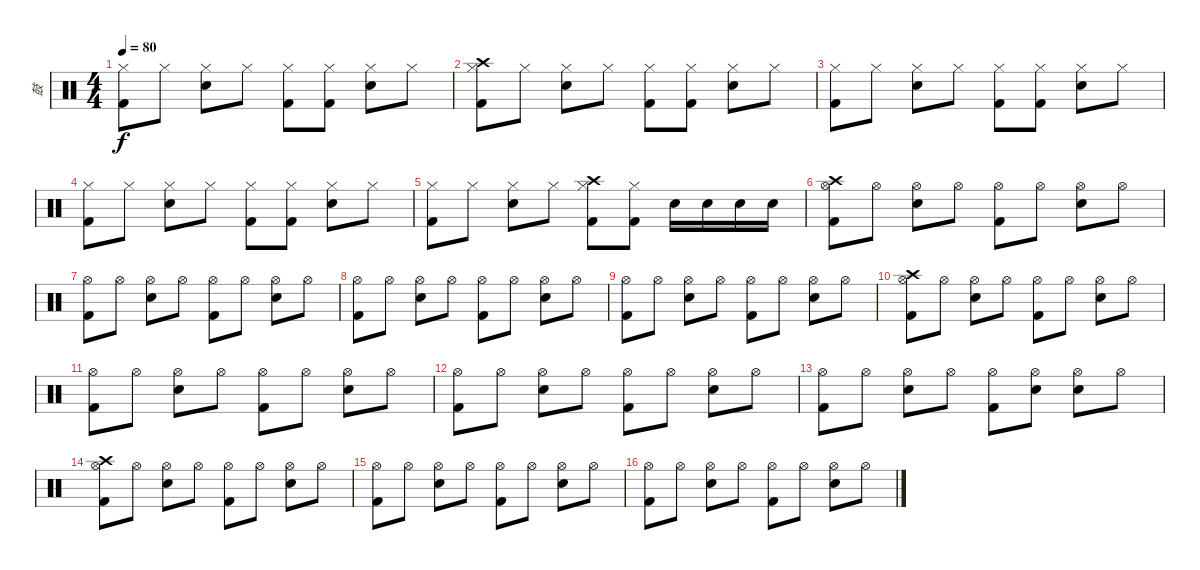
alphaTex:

\track ("鼓" "鼓") {instrument percussion}
\staff {score}
\articulation defaults
\ts (4 4)
\tempo 80
\clef neutral
\ks c
("Hi-Hat (closed)" "Kick (hit) 2").8{dy f} "Hi-Hat (closed)".8 ("Hi-Hat (closed)" "Snare (hit) 2").8 "Hi-Hat (closed)".8 ("Hi-Hat (closed)" "Kick (hit) 2").8 ("Hi-Hat (closed)" "Kick (hit) 2").8 ("Hi-Hat (closed)" "Snare (hit) 2").8 "Hi-Hat (closed)".8 |
("Hi-Hat (closed)" "Crash high (hit)" "Kick (hit) 2").8 "Hi-Hat (closed)".8 ("Hi-Hat (closed)" "Snare (hit) 2").8 "Hi-Hat (closed)".8 ("Hi-Hat (closed)" "Kick (hit) 2").8 ("Hi-Hat (closed)" "Kick (hit) 2").8 ("Hi-Hat (closed)" "Snare (hit) 2").8 "Hi-Hat (closed)".8 |
("Hi-Hat (closed)" "Kick (hit) 2").8 "Hi-Hat (closed)".8 ("Hi-Hat (closed)" "Snare (hit) 2").8 "Hi-Hat (closed)".8 ("Hi-Hat (closed)" "Kick (hit) 2").8 ("Hi-Hat (closed)" "Kick (hit) 2").8 ("Hi-Hat (closed)" "Snare (hit) 2").8 "Hi-Hat (closed)".8 |
("Hi-Hat (closed)" "Kick (hit) 2").8 "Hi-Hat (closed)".8 ("Hi-Hat (closed)" "Snare (hit) 2").8 "Hi-Hat (closed)".8 ("Hi-Hat (closed)" "Kick (hit) 2").8 ("Hi-Hat (closed)" "Kick (hit) 2").8 ("Hi-Hat (closed)" "Snare (hit) 2").8 "Hi-Hat (closed)".8 |
("Hi-Hat (closed)" "Kick (hit) 2").8 "Hi-Hat (closed)".8 ("Hi-Hat (closed)" "Snare (hit) 2").8 "Hi-Hat (closed)".8 ("Hi-Hat (closed)" "Crash high (hit)" "Kick (hit) 2").8 ("Hi-Hat (closed)" "Kick (hit) 2").8 "Snare (hit) 2".16 "Snare (hit) 2".16 "Snare (hit) 2".16 "Snare (hit) 2".16 |
("Hi-Hat (open)" "Crash high (hit)" "Kick (hit) 2").8 "Hi-Hat (open)".8 ("Hi-Hat (open)" "Snare (hit) 2").8 "Hi-Hat (open)".8 ("Hi-Hat (open)" "Kick (hit) 2").8 "Hi-Hat (open)".8 ("Hi-Hat (open)" "Snare (hit) 2").8 "Hi-Hat (open)".8 |
("Hi-Hat (open)" "Kick (hit) 2").8 "Hi-Hat (open)".8 ("Hi-Hat (open)" "Snare (hit) 2").8 "Hi-Hat (open)".8 ("Hi-Hat (open)" "Kick (hit) 2").8 "Hi-Hat (open)".8 ("Hi-Hat (open)" "Snare (hit) 2").8 "Hi-Hat (open)".8 |
("Hi-Hat (open)" "Kick (hit) 2").8 "Hi-Hat (open)".8 ("Hi-Hat (open)" "Snare (hit) 2").8 "Hi-Hat (open)".8 ("Hi-Hat (open)" "Kick (hit) 2").8 "Hi-Hat (open)".8 ("Hi-Hat (open)" "Snare (hit) 2").8 "Hi-Hat (open)".8 |
("Hi-Hat (open)" "Kick (hit) 2").8 "Hi-Hat (open)".8 ("Hi-Hat (open)" "Snare (hit) 2").8 "Hi-Hat (open)".8 ("Hi-Hat (open)" "Kick (hit) 2").8 "Hi-Hat (open)".8 ("Hi-Hat (open)" "Snare (hit) 2").8 "Hi-Hat (open)".8 |
("Hi-Hat (open)" "Crash high (hit)" "Kick (hit) 2").8 "Hi-Hat (open)".8 ("Hi-Hat (open)" "Snare (hit) 2").8 "Hi-Hat (open)".8 ("Hi-Hat (open)" "Kick (hit) 2").8 "Hi-Hat (open)".8 ("Hi-Hat (open)" "Snare (hit) 2").8 "Hi-Hat (open)".8 |
("Hi-Hat (open)" "Kick (hit) 2").8 "Hi-Hat (open)".8 ("Hi-Hat (open)" "Snare (hit) 2").8 "Hi-Hat (open)".8 ("Hi-Hat (open)" "Kick (hit) 2").8 "Hi-Hat (open)".8 ("Hi-Hat (open)" "Snare (hit) 2").8 "Hi-Hat (open)".8 |
("Hi-Hat (open)" "Kick (hit) 2").8 "Hi-Hat (open)".8 ("Hi-Hat (open)" "Snare (hit) 2").8 "Hi-Hat (open)".8 ("Hi-Hat (open)" "Kick (hit) 2").8 "Hi-Hat (open)".8 ("Hi-Hat (open)" "Snare (hit) 2").8 "Hi-Hat (open)".8 |
("Hi-Hat (open)" "Kick (hit) 2").8 "Hi-Hat (open)".8 ("Hi-Hat (open)" "Snare (hit) 2").8 "Hi-Hat (open)".8 ("Hi-Hat (open)" "Kick (hit) 2").8 ("Hi-Hat (open)" "Snare (hit) 2").8 ("Hi-Hat (open)" "Snare (hit) 2").8 "Hi-Hat (open)".8 |
("Hi-Hat (open)" "Crash high (hit)" "Kick (hit) 2").8 "Hi-Hat (open)".8 ("Hi-Hat (open)" "Snare (hit) 2").8 "Hi-Hat (open)".8 ("Hi-Hat (open)" "Kick (hit) 2").8 "Hi-Hat (open)".8 ("Hi-Hat (open)" "Snare (hit) 2").8 "Hi-Hat (open)".8 |
("Hi-Hat (open)" "Kick (hit) 2").8 "Hi-Hat (open)".8 ("Hi-Hat (open)" "Snare (hit) 2").8 "Hi-Hat (open)".8 ("Hi-Hat (open)" "Kick (hit) 2").8 "Hi-Hat (open)".8 ("Hi-Hat (open)" "Snare (hit) 2").8 "Hi-Hat (open)".8 |
("Hi-Hat (open)" "Kick (hit) 2").8 "Hi-Hat (open)".8 ("Hi-Hat (open)" "Snare (hit) 2").8 "Hi-Hat (open)".8 ("Hi-Hat (open)" "Kick (hit) 2").8 "Hi-Hat (open)".8 ("Hi-Hat (open)" "Snare (hit) 2").8 "Hi-Hat (open)".8
